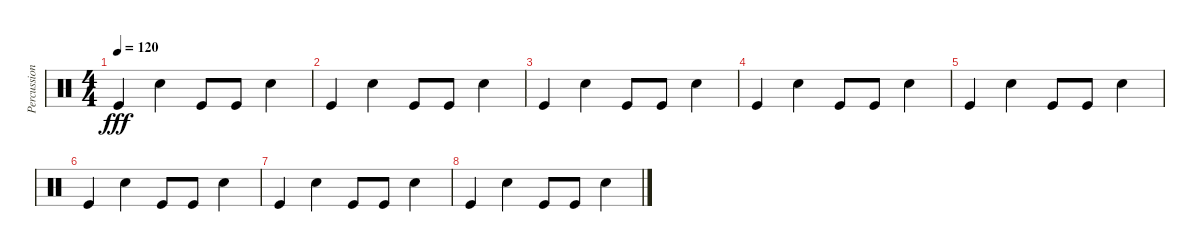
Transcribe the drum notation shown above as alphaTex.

\track ("Percussion" "Percussion") {instrument percussion}
\staff {score}
\articulation defaults
\ts (4 4)
\tempo 120
\clef neutral
\ks c "Kick (hit)".4{dy fff} "Snare (hit) 2".4 "Kick (hit)".8 "Kick (hit)".8 "Snare (hit) 2".4
|
"Kick (hit)".4 "Snare (hit) 2".4 "Kick (hit)".8 "Kick (hit)".8 "Snare (hit) 2".4 |
"Kick (hit)".4 "Snare (hit) 2".4 "Kick (hit)".8 "Kick (hit)".8 "Snare (hit) 2".4 |
"Kick (hit)".4 "Snare (hit) 2".4 "Kick (hit)".8 "Kick (hit)".8 "Snare (hit) 2".4 |
"Kick (hit)".4 "Snare (hit) 2".4 "Kick (hit)".8 "Kick (hit)".8 "Snare (hit) 2".4 |
"Kick (hit)".4 "Snare (hit) 2".4 "Kick (hit)".8 "Kick (hit)".8 "Snare (hit) 2".4 |
"Kick (hit)".4 "Snare (hit) 2".4 "Kick (hit)".8 "Kick (hit)".8 "Snare (hit) 2".4 |
"Kick (hit)".4 "Snare (hit) 2".4 "Kick (hit)".8 "Kick (hit)".8 "Snare (hit) 2".4
